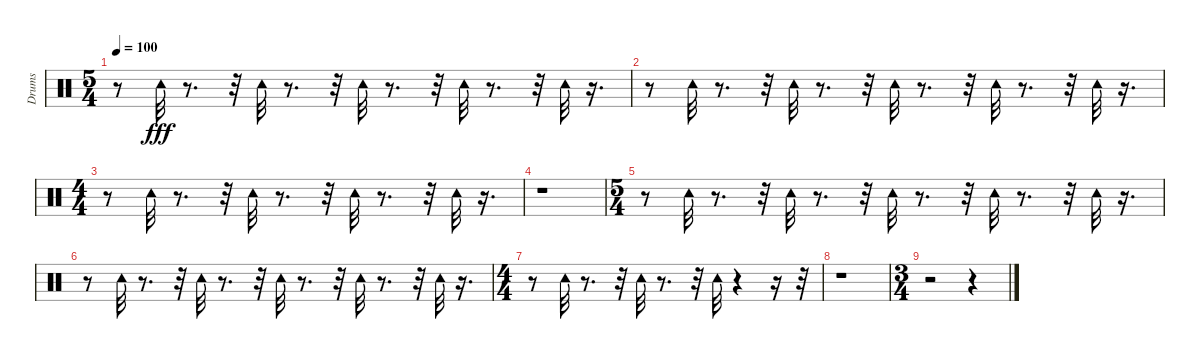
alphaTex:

\track ("Drums" "Drums") {instrument percussion}
\staff {score}
\articulation defaults
\ts (5 4)
\tempo 100
\clef neutral
\ks c
r.8{dy fff} "Tambourine (hit)".32 r.8{d} r.32 "Tambourine (hit)".32 r.8{d} r.32 "Tambourine (hit)".32 r.8{d} r.32 "Tambourine (hit)".32 r.8{d} r.32 "Tambourine (hit)".32 r.16{d} |
r.8 "Tambourine (hit)".32 r.8{d} r.32 "Tambourine (hit)".32 r.8{d} r.32 "Tambourine (hit)".32 r.8{d} r.32 "Tambourine (hit)".32 r.8{d} r.32 "Tambourine (hit)".32 r.16{d} |
\ts (4 4)
r.8 "Tambourine (hit)".32 r.8{d} r.32 "Tambourine (hit)".32 r.8{d} r.32 "Tambourine (hit)".32 r.8{d} r.32 "Tambourine (hit)".32 r.16{d} |
r.1 |
\ts (5 4)
r.8 "Tambourine (hit)".32 r.8{d} r.32 "Tambourine (hit)".32 r.8{d} r.32 "Tambourine (hit)".32 r.8{d} r.32 "Tambourine (hit)".32 r.8{d} r.32 "Tambourine (hit)".32 r.16{d} |
r.8 "Tambourine (hit)".32 r.8{d} r.32 "Tambourine (hit)".32 r.8{d} r.32 "Tambourine (hit)".32 r.8{d} r.32 "Tambourine (hit)".32 r.8{d} r.32 "Tambourine (hit)".32 r.16{d} |
\ts (4 4)
r.8 "Tambourine (hit)".32 r.8{d} r.32 "Tambourine (hit)".32 r.8{d} r.32 "Tambourine (hit)".32 r.4 r.16 r.32 |
r.1 |
\ts (3 4)
r.2 r.4
